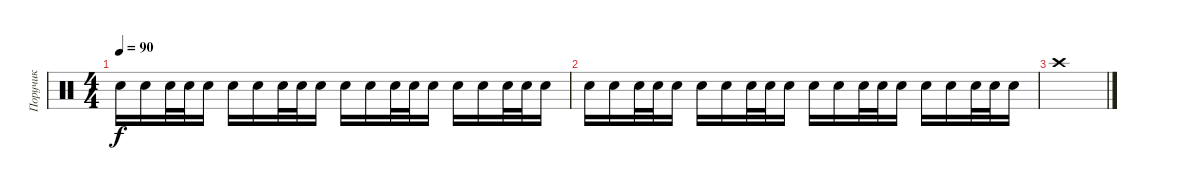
\track ("Поручик" "Поручик") {instrument percussion}
\staff {score}
\articulation defaults
\ts (4 4)
\tempo 90
\clef neutral
\ks c "Snare (hit) 2".16{dy f} "Snare (hit) 2".16 "Snare (hit) 2".32 "Snare (hit) 2".32 "Snare (hit) 2".16 "Snare (hit) 2".16 "Snare (hit) 2".16 "Snare (hit) 2".32 "Snare (hit) 2".32 "Snare (hit) 2".16 "Snare (hit) 2".16 "Snare (hit) 2".16 "Snare (hit) 2".32 "Snare (hit) 2".32 "Snare (hit) 2".16 "Snare (hit) 2".16 "Snare (hit) 2".16 "Snare (hit) 2".32 "Snare (hit) 2".32 "Snare (hit) 2".16
|
"Snare (hit) 2".16 "Snare (hit) 2".16 "Snare (hit) 2".32 "Snare (hit) 2".32 "Snare (hit) 2".16 "Snare (hit) 2".16 "Snare (hit) 2".16 "Snare (hit) 2".32 "Snare (hit) 2".32 "Snare (hit) 2".16 "Snare (hit) 2".16 "Snare (hit) 2".16 "Snare (hit) 2".32 "Snare (hit) 2".32 "Snare (hit) 2".16 "Snare (hit) 2".16 "Snare (hit) 2".16 "Snare (hit) 2".32 "Snare (hit) 2".32 "Snare (hit) 2".16 |
"Crash high (hit)".1
